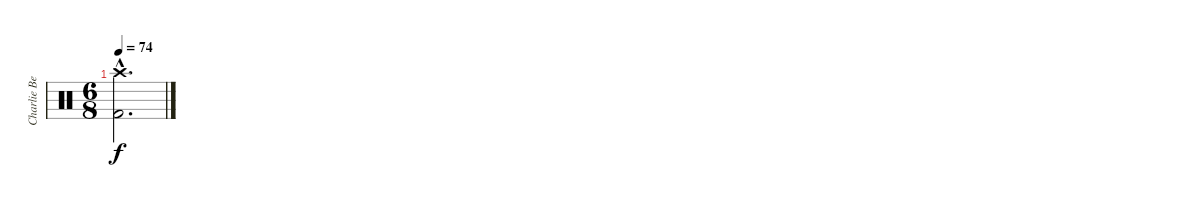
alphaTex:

\track ("Charlie Benante" "Charlie Be") {instrument percussion}
\staff {score}
\articulation defaults
\ts (6 8)
\tempo 74
\clef neutral
\ks c
("Kick (hit) 2"{hac} "Crash high (hit)"{hac}).2{d dy f}
